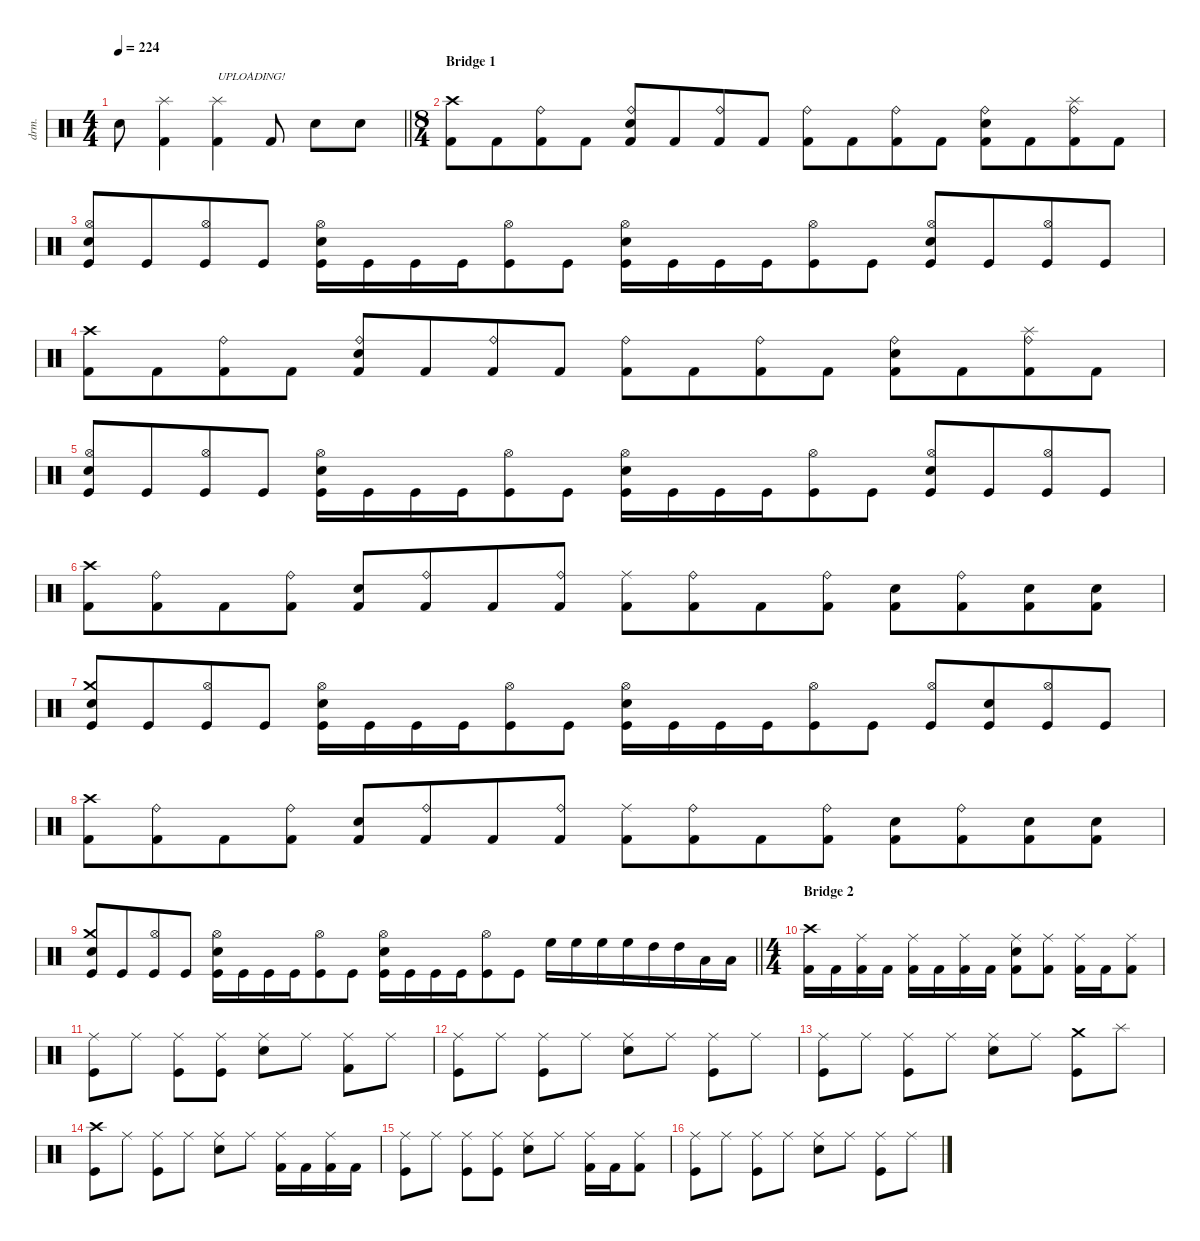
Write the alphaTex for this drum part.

\defaultSystemsLayout 4
\hideDynamics
\bracketExtendMode nobrackets
\otherSystemsTrackNameOrientation horizontal
\track ("Percussion" "drm.") {instrument percussion}
\staff {score}
\articulation defaults
\ts (4 4)
\tempo 224
\clef neutral
\barLineRight lightlight
\ks c "Snare (hit) 2".8{dy f beam Down}
("Splash (hit)" "Kick (hit) 2").4{beam Down} ("Splash (hit)" "Kick (hit) 2").4{txt "UPLOADING!" beam Down} "Kick (hit) 2".8{beam Up} "Snare (hit) 2".8{beam Down} "Snare (hit) 2".8{beam Down} |
\ts (8 4)
\beaming (8 4 4 4 4)
\section ("" "Bridge 1")
("Crash high (hit)" "Kick (hit) 2").8{beam Down} "Kick (hit) 2".8{beam Down} ("Ride (bell)" "Kick (hit) 2").8{beam Down} "Kick (hit) 2".8{beam Down} ("Ride (bell)" "Snare (hit) 2" "Kick (hit) 2").8{beam Up} "Kick (hit) 2".8{beam Up} ("Ride (bell)" "Kick (hit) 2").8{beam Up} "Kick (hit) 2".8{beam Up} ("Ride (bell)" "Kick (hit) 2").8{beam Down} "Kick (hit) 2".8{beam Down} ("Ride (bell)" "Kick (hit) 2").8{beam Down} "Kick (hit) 2".8{beam Down} ("Ride (bell)" "Snare (hit) 2" "Kick (hit) 2").8{beam Down} "Kick (hit) 2".8{beam Down} ("Splash (hit)" "Ride (bell)" "Kick (hit) 2").8{beam Down} "Kick (hit) 2".8{beam Down} |
("Hi-Hat (open)" "Snare (hit) 2" "Kick (hit)").8{beam Up} "Kick (hit)".8{beam Up} ("Hi-Hat (open)" "Kick (hit)").8{beam Up} "Kick (hit)".8{beam Up} ("Hi-Hat (open)" "Snare (hit) 2" "Kick (hit)").16{beam Down} "Kick (hit)".16{beam Down} "Kick (hit)".16{beam Down} "Kick (hit)".16{beam Down} ("Hi-Hat (open)" "Kick (hit)").8{beam Down} "Kick (hit)".8{beam Down} ("Hi-Hat (open)" "Snare (hit) 2" "Kick (hit)").16{beam Down} "Kick (hit)".16{beam Down} "Kick (hit)".16{beam Down} "Kick (hit)".16{beam Down} ("Hi-Hat (open)" "Kick (hit)").8{beam Down} "Kick (hit)".8{beam Down} ("Hi-Hat (open)" "Snare (hit) 2" "Kick (hit)").8{beam Up} "Kick (hit)".8{beam Up} ("Hi-Hat (open)" "Kick (hit)").8{beam Up} "Kick (hit)".8{beam Up} |
("Crash high (hit)" "Kick (hit) 2").8{beam Down} "Kick (hit) 2".8{beam Down} ("Ride (bell)" "Kick (hit) 2").8{beam Down} "Kick (hit) 2".8{beam Down} ("Ride (bell)" "Snare (hit) 2" "Kick (hit) 2").8{beam Up} "Kick (hit) 2".8{beam Up} ("Ride (bell)" "Kick (hit) 2").8{beam Up} "Kick (hit) 2".8{beam Up} ("Ride (bell)" "Kick (hit) 2").8{beam Down} "Kick (hit) 2".8{beam Down} ("Ride (bell)" "Kick (hit) 2").8{beam Down} "Kick (hit) 2".8{beam Down} ("Ride (bell)" "Snare (hit) 2" "Kick (hit) 2").8{beam Down} "Kick (hit) 2".8{beam Down} ("Splash (hit)" "Ride (bell)" "Kick (hit) 2").8{beam Down} "Kick (hit) 2".8{beam Down} |
("Hi-Hat (open)" "Snare (hit) 2" "Kick (hit)").8{beam Up} "Kick (hit)".8{beam Up} ("Hi-Hat (open)" "Kick (hit)").8{beam Up} "Kick (hit)".8{beam Up} ("Hi-Hat (open)" "Snare (hit) 2" "Kick (hit)").16{beam Down} "Kick (hit)".16{beam Down} "Kick (hit)".16{beam Down} "Kick (hit)".16{beam Down} ("Hi-Hat (open)" "Kick (hit)").8{beam Down} "Kick (hit)".8{beam Down} ("Hi-Hat (open)" "Snare (hit) 2" "Kick (hit)").16{beam Down} "Kick (hit)".16{beam Down} "Kick (hit)".16{beam Down} "Kick (hit)".16{beam Down} ("Hi-Hat (open)" "Kick (hit)").8{beam Down} "Kick (hit)".8{beam Down} ("Hi-Hat (open)" "Snare (hit) 2" "Kick (hit)").8{beam Up} "Kick (hit)".8{beam Up} ("Hi-Hat (open)" "Kick (hit)").8{beam Up} "Kick (hit)".8{beam Up} |
("Crash high (hit)" "Kick (hit) 2").8{beam Down} ("Ride (bell)" "Kick (hit) 2").8{beam Down} "Kick (hit) 2".8{beam Down} ("Ride (bell)" "Kick (hit) 2").8{beam Down} ("Snare (hit) 2" "Kick (hit) 2").8{beam Up} ("Ride (bell)" "Kick (hit) 2").8{beam Up} "Kick (hit) 2".8{beam Up} ("Ride (bell)" "Kick (hit) 2").8{beam Up} ("Ride (middle)" "Kick (hit) 2").8{beam Down} ("Ride (bell)" "Kick (hit) 2").8{beam Down} "Kick (hit) 2".8{beam Down} ("Ride (bell)" "Kick (hit) 2").8{beam Down} ("Snare (hit) 2" "Kick (hit) 2").8{beam Down} ("Ride (bell)" "Kick (hit) 2").8{beam Down} ("Snare (hit) 2" "Kick (hit) 2").8{beam Down} ("Snare (hit) 2" "Kick (hit) 2").8{beam Down} |
("Crash medium (hit)" "Snare (hit) 2" "Kick (hit)").8{beam Up} "Kick (hit)".8{beam Up} ("Hi-Hat (open)" "Kick (hit)").8{beam Up} "Kick (hit)".8{beam Up} ("Hi-Hat (open)" "Snare (hit) 2" "Kick (hit)").16{beam Down} "Kick (hit)".16{beam Down} "Kick (hit)".16{beam Down} "Kick (hit)".16{beam Down} ("Hi-Hat (open)" "Kick (hit)").8{beam Down} "Kick (hit)".8{beam Down} ("Hi-Hat (open)" "Snare (hit) 2" "Kick (hit)").16{beam Down} "Kick (hit)".16{beam Down} "Kick (hit)".16{beam Down} "Kick (hit)".16{beam Down} ("Hi-Hat (open)" "Kick (hit)").8{beam Down} "Kick (hit)".8{beam Down} ("Hi-Hat (open)" "Kick (hit)").8{beam Up} ("Snare (hit) 2" "Kick (hit)").8{beam Up} ("Hi-Hat (open)" "Kick (hit)").8{beam Up} "Kick (hit)".8{beam Up} |
("Crash high (hit)" "Kick (hit) 2").8{beam Down} ("Ride (bell)" "Kick (hit) 2").8{beam Down} "Kick (hit) 2".8{beam Down} ("Ride (bell)" "Kick (hit) 2").8{beam Down} ("Snare (hit) 2" "Kick (hit) 2").8{beam Up} ("Ride (bell)" "Kick (hit) 2").8{beam Up} "Kick (hit) 2".8{beam Up} ("Ride (bell)" "Kick (hit) 2").8{beam Up} ("Ride (middle)" "Kick (hit) 2").8{beam Down} ("Ride (bell)" "Kick (hit) 2").8{beam Down} "Kick (hit) 2".8{beam Down} ("Ride (bell)" "Kick (hit) 2").8{beam Down} ("Snare (hit) 2" "Kick (hit) 2").8{beam Down} ("Ride (bell)" "Kick (hit) 2").8{beam Down} ("Snare (hit) 2" "Kick (hit) 2").8{beam Down} ("Snare (hit) 2" "Kick (hit) 2").8{beam Down} |
\barLineRight lightlight
("Crash medium (hit)" "Snare (hit) 2" "Kick (hit)").8{beam Up} "Kick (hit)".8{beam Up} ("Hi-Hat (open)" "Kick (hit)").8{beam Up} "Kick (hit)".8{beam Up} ("Hi-Hat (open)" "Snare (hit) 2" "Kick (hit)").16{beam Down} "Kick (hit)".16{beam Down} "Kick (hit)".16{beam Down} "Kick (hit)".16{beam Down} ("Hi-Hat (open)" "Kick (hit)").8{beam Down} "Kick (hit)".8{beam Down} ("Hi-Hat (open)" "Snare (hit) 2" "Kick (hit)").16{beam Down} "Kick (hit)".16{beam Down} "Kick (hit)".16{beam Down} "Kick (hit)".16{beam Down} ("Hi-Hat (open)" "Kick (hit)").8{beam Down} "Kick (hit)".8{beam Down} "High Floor Tom (hit)".16{beam Down} "High Floor Tom (hit)".16{beam Down} "High Floor Tom (hit)".16{beam Down} "High Floor Tom (hit)".16{beam Down} "High Tom (hit)".16{beam Down} "High Tom (hit)".16{beam Down} "Low Tom (hit)".16{beam Down} "Low Tom (hit)".16{beam Down} |
\ts (4 4)
\beaming (8 2 2 2 2)
\section ("" "Bridge 2")
("Crash high (hit)" "Kick (hit) 2").16{beam Down} "Kick (hit) 2".16{beam Down} ("Ride (middle)" "Kick (hit) 2").16{beam Down} "Kick (hit) 2".16{beam Down} ("Ride (middle)" "Kick (hit) 2").16{beam Down} "Kick (hit) 2".16{beam Down} ("Ride (middle)" "Kick (hit) 2").16{beam Down} "Kick (hit) 2".16{beam Down} ("Ride (middle)" "Snare (hit) 2" "Kick (hit) 2").8{beam Down} ("Ride (middle)" "Kick (hit) 2").8{beam Down} ("Ride (middle)" "Kick (hit) 2").16{beam Down} "Kick (hit) 2".16{beam Down} ("Ride (middle)" "Kick (hit) 2").8{beam Down} |
("Ride (middle)" "Kick (hit)").8{beam Down} "Ride (middle)".8{beam Down} ("Ride (middle)" "Kick (hit)").8{beam Down} ("Ride (middle)" "Kick (hit)").8{beam Down} ("Ride (middle)" "Snare (hit) 2").8{beam Down} "Ride (middle)".8{beam Down} ("Ride (middle)" "Kick (hit) 2").8{beam Down} "Ride (middle)".8{beam Down} |
("Ride (middle)" "Kick (hit)").8{beam Down} "Ride (middle)".8{beam Down} ("Ride (middle)" "Kick (hit)").8{beam Down} "Ride (middle)".8{beam Down} ("Ride (middle)" "Snare (hit) 2").8{beam Down} "Ride (middle)".8{beam Down} ("Ride (middle)" "Kick (hit)").8{beam Down} "Ride (middle)".8{beam Down} |
("Ride (middle)" "Kick (hit)").8{beam Down} "Ride (middle)".8{beam Down} ("Ride (middle)" "Kick (hit)").8{beam Down} "Ride (middle)".8{beam Down} ("Ride (middle)" "Snare (hit) 2").8{beam Down} "Ride (middle)".8{beam Down} ("Crash medium (hit)" "Kick (hit)").8{beam Down} "Splash (hit)".8{beam Down} |
("Crash high (hit)" "Kick (hit)").8{beam Down} "Ride (middle)".8{beam Down} ("Ride (middle)" "Kick (hit)").8{beam Down} "Ride (middle)".8{beam Down} ("Ride (middle)" "Snare (hit) 2").8{beam Down} "Ride (middle)".8{beam Down} ("Ride (middle)" "Kick (hit) 2").16{beam Down} "Kick (hit) 2".16{beam Down} ("Ride (middle)" "Kick (hit) 2").16{beam Down} "Kick (hit) 2".16{beam Down} |
("Ride (middle)" "Kick (hit)").8{beam Down} "Ride (middle)".8{beam Down} ("Ride (middle)" "Kick (hit)").8{beam Down} ("Ride (middle)" "Kick (hit)").8{beam Down} ("Ride (middle)" "Snare (hit) 2").8{beam Down} "Ride (middle)".8{beam Down} ("Ride (middle)" "Kick (hit) 2").16{beam Down} "Kick (hit) 2".16{beam Down} ("Ride (middle)" "Kick (hit) 2").8{beam Down} |
("Ride (middle)" "Kick (hit)").8{beam Down} "Ride (middle)".8{beam Down} ("Ride (middle)" "Kick (hit)").8{beam Down} "Ride (middle)".8{beam Down} ("Ride (middle)" "Snare (hit) 2").8{beam Down} "Ride (middle)".8{beam Down} ("Ride (middle)" "Kick (hit)").8{beam Down} "Ride (middle)".8{beam Down}
